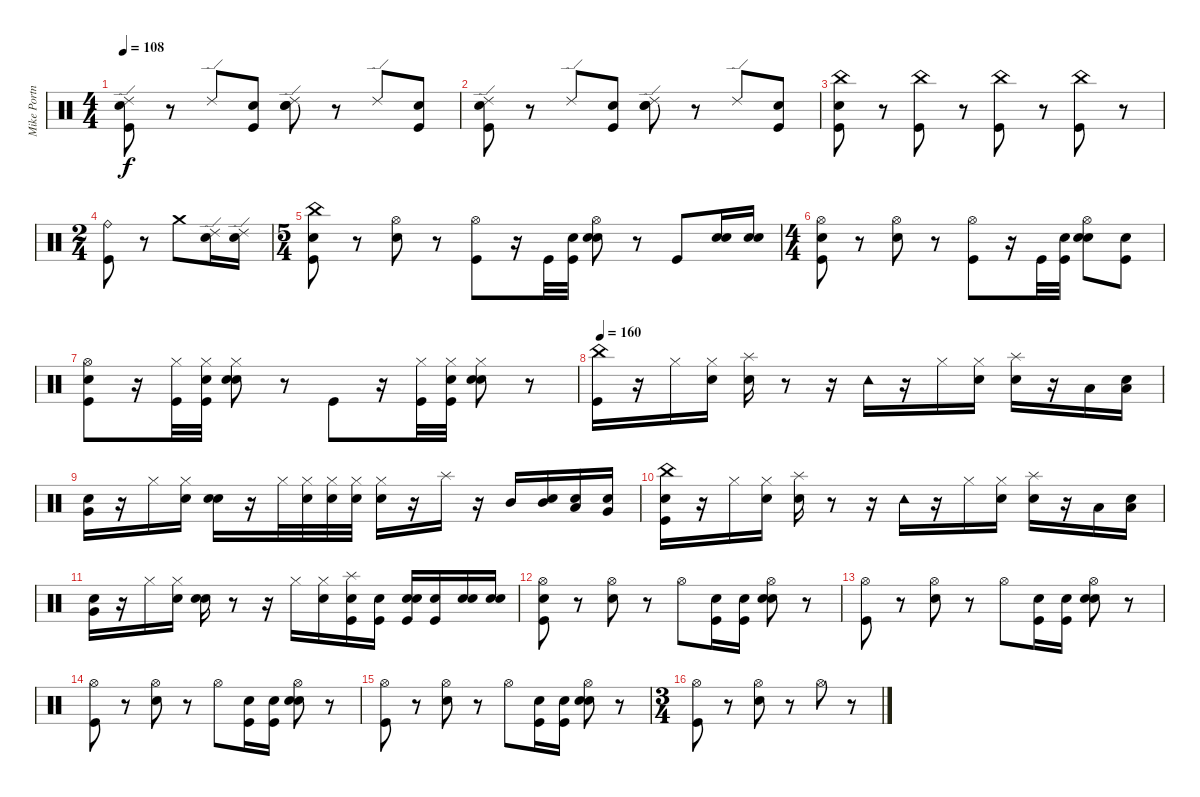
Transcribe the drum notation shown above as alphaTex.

\track ("Mike Portnoy" "Mike Portn") {instrument percussion}
\staff {score}
\articulation defaults
\ts (4 4)
\tempo 108
\clef neutral
\ks c
("Snare (hit)" "Kick (hit)" "Ride (edge) 2").8{dy f} r.8 "Ride (edge) 2".8 ("Snare (hit)" "Kick (hit)").8 ("Snare (hit)" "Snare (hit) 2" "Ride (edge) 2").8 r.8 "Ride (edge) 2".8 ("Snare (hit)" "Kick (hit)").8 |
("Snare (hit)" "Kick (hit)" "Ride (edge) 2").8 r.8 "Ride (edge) 2".8 ("Snare (hit)" "Kick (hit)").8 ("Snare (hit)" "Snare (hit) 2" "Ride (edge) 2").8 r.8 "Ride (edge) 2".8 ("Snare (hit)" "Kick (hit)").8 |
("Snare (hit)" "Kick (hit)" "China (hit)").8 r.8 ("Kick (hit)" "China (hit)").8 r.8 ("Kick (hit)" "China (hit)").8 r.8 ("Kick (hit)" "China (hit)").8 r.8 |
\ts (2 4)
("Kick (hit)" "Ride (bell)").8 r.8 "Crash medium (hit)".8 ("Snare (hit)" "Ride (edge) 2").16 ("Snare (hit)" "Ride (edge) 2").16 |
\ts (5 4)
("Snare (hit)" "Kick (hit)" "China (hit)").8 r.8 ("Snare (hit) 2" "Hi-Hat (open)").8 r.8 ("Kick (hit)" "Hi-Hat (open)").8 r.16 "Kick (hit)".32 ("Snare (hit)" "Kick (hit)").32 ("Snare (hit)" "Snare (hit) 2" "Hi-Hat (open)").8 r.8 "Kick (hit)".8 ("Snare (hit)" "Snare (hit) 2").16 ("Snare (hit)" "Snare (hit) 2").16 |
\ts (4 4)
("Snare (hit)" "Kick (hit)" "Hi-Hat (open)").8 r.8 ("Snare (hit) 2" "Hi-Hat (open)").8 r.8 ("Kick (hit)" "Hi-Hat (open)").8 r.16 "Kick (hit)".32 ("Snare (hit)" "Kick (hit)").32 ("Snare (hit)" "Snare (hit) 2" "Hi-Hat (open)").8 ("Snare (hit)" "Kick (hit)").8 |
("Snare (hit)" "Kick (hit)" "Hi-Hat (open)").8 r.16 ("Kick (hit)" "Hi-Hat (closed)").32 ("Snare (hit)" "Kick (hit)" "Hi-Hat (closed)").32 ("Snare (hit)" "Snare (hit) 2" "Hi-Hat (closed)").8 r.8 "Kick (hit)".8 r.16 ("Kick (hit)" "Hi-Hat (closed)").32 ("Snare (hit)" "Kick (hit)" "Hi-Hat (closed)").32 ("Snare (hit)" "Snare (hit) 2" "Hi-Hat (closed)").8 r.8 |
\tempo 160
("Kick (hit)" "China (hit)").16 r.16 "Hi-Hat (closed)".16 ("Snare (hit)" "Hi-Hat (closed)").16 ("Snare (hit)" "Splash (hit)").16 r.8 r.16 "Tambourine (hit)".16 r.16 "Hi-Hat (closed)".16 ("Snare (hit)" "Hi-Hat (closed)").16 ("Snare (hit)" "Splash (hit)").16 r.16 "Low Tom (hit)".16 ("Snare (hit)" "Low Tom (hit)").16 |
("Snare (hit)" "Very Low Tom (hit)").16 r.16 "Hi-Hat (closed)".16 ("Snare (hit)" "Hi-Hat (closed)").16 ("Snare (hit)" "Snare (hit) 2").16 r.16 "Hi-Hat (closed)".32 ("Snare (hit)" "Hi-Hat (closed)").32 ("Snare (hit)" "Hi-Hat (closed)").32 ("Snare (hit)" "Hi-Hat (closed)").32 ("Snare (hit)" "Hi-Hat (closed)").16 r.16 "Splash (hit)".16 r.16 "Mid Tom (hit)".16 ("Snare (hit)" "Mid Tom (hit)").16 ("Snare (hit)" "Low Tom (hit)").16 ("Snare (hit)" "Very Low Tom (hit)").16 |
("Snare (hit)" "Kick (hit)" "China (hit)").16 r.16 "Hi-Hat (closed)".16 ("Snare (hit)" "Hi-Hat (closed)").16 ("Snare (hit)" "Splash (hit)").16 r.8 r.16 "Tambourine (hit)".16 r.16 "Hi-Hat (closed)".16 ("Snare (hit)" "Hi-Hat (closed)").16 ("Snare (hit)" "Splash (hit)").16 r.16 "Low Tom (hit)".16 ("Snare (hit)" "Low Tom (hit)").16 |
("Snare (hit)" "Very Low Tom (hit)").16 r.16 "Hi-Hat (closed)".16 ("Snare (hit)" "Hi-Hat (closed)").16 ("Snare (hit)" "Snare (hit) 2").16 r.8 r.16 "Hi-Hat (closed)".16 ("Snare (hit)" "Hi-Hat (closed)").16 ("Snare (hit)" "Kick (hit)" "Splash (hit)").16 ("Snare (hit)" "Kick (hit)").16 ("Snare (hit)" "Kick (hit)" "Snare (hit) 2").16 ("Snare (hit)" "Kick (hit)").16 ("Snare (hit)" "Snare (hit) 2").16 ("Snare (hit)" "Snare (hit) 2").16 |
("Snare (hit)" "Kick (hit)" "Hi-Hat (open)").8 r.8 ("Snare (hit) 2" "Hi-Hat (open)").8 r.8 "Hi-Hat (open)".8 ("Snare (hit)" "Kick (hit)").16 ("Snare (hit)" "Kick (hit)").16 ("Snare (hit)" "Snare (hit) 2" "Hi-Hat (open)").8 r.8 |
("Kick (hit)" "Hi-Hat (open)").8 r.8 ("Snare (hit) 2" "Hi-Hat (open)").8 r.8 "Hi-Hat (open)".8 ("Snare (hit)" "Kick (hit)").16 ("Snare (hit)" "Kick (hit)").16 ("Snare (hit)" "Snare (hit) 2" "Hi-Hat (open)").8 r.8 |
("Kick (hit)" "Hi-Hat (open)").8 r.8 ("Snare (hit) 2" "Hi-Hat (open)").8 r.8 "Hi-Hat (open)".8 ("Snare (hit)" "Kick (hit)").16 ("Snare (hit)" "Kick (hit)").16 ("Snare (hit)" "Snare (hit) 2" "Hi-Hat (open)").8 r.8 |
("Kick (hit)" "Hi-Hat (open)").8 r.8 ("Snare (hit) 2" "Hi-Hat (open)").8 r.8 "Hi-Hat (open)".8 ("Snare (hit)" "Kick (hit)").16 ("Snare (hit)" "Kick (hit)").16 ("Snare (hit)" "Snare (hit) 2" "Hi-Hat (open)").8 r.8 |
\ts (3 4)
("Kick (hit)" "Hi-Hat (open)").8 r.8 ("Snare (hit) 2" "Hi-Hat (open)").8 r.8 "Hi-Hat (open)".8 r.8
